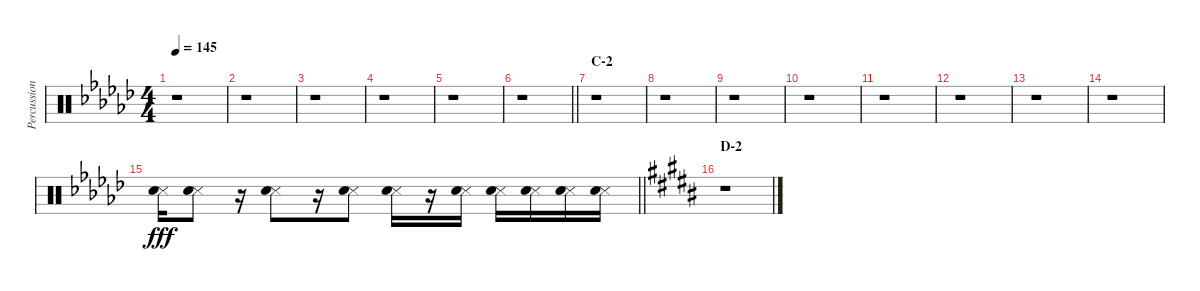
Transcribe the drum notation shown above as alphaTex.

\track ("Percussion" "Percussion") {instrument percussion}
\staff {score}
\articulation defaults
\ts (4 4)
\tempo 145
\clef neutral
\ks gb
r.1{dy fff} |
r.1 |
r.1 |
r.1 |
r.1 |
\barLineRight lightlight
r.1 |
\section ("" "C-2")
r.1 |
r.1 |
r.1 |
r.1 |
r.1 |
r.1 |
r.1 |
r.1 |
\barLineRight lightlight
("Snare (side stick) 3" "Hand Clap (hit)").16 ("Snare (side stick) 3" "Hand Clap (hit)").8 r.16 ("Snare (side stick) 3" "Hand Clap (hit)").8 r.16 ("Snare (side stick) 3" "Hand Clap (hit)").8 ("Snare (side stick) 3" "Hand Clap (hit)").16 r.16 ("Snare (side stick) 3" "Hand Clap (hit)").16 ("Snare (side stick) 3" "Hand Clap (hit)").16 ("Snare (side stick) 3" "Hand Clap (hit)").16 ("Snare (side stick) 3" "Hand Clap (hit)").16 ("Snare (side stick) 3" "Hand Clap (hit)").16 |
\section ("" "D-2")
\ks b
r.1
